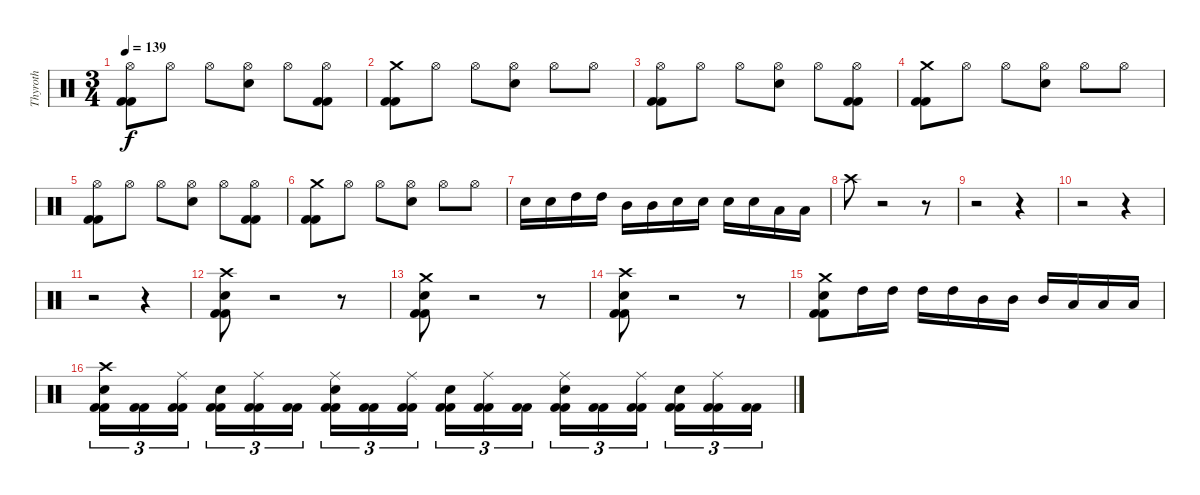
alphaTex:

\track ("Thyroth" "Thyroth") {instrument percussion}
\staff {score}
\articulation defaults
\ts (3 4)
\tempo 139
\clef neutral
\ks c
("Kick (hit) 2" "Kick (hit) 2" "Hi-Hat (open)").8{dy f} "Hi-Hat (open)".8 "Hi-Hat (open)".8 ("Snare (hit) 2" "Hi-Hat (open)").8 "Hi-Hat (open)".8 ("Kick (hit) 2" "Kick (hit) 2" "Hi-Hat (open)").8 |
("Kick (hit) 2" "Kick (hit) 2" "Crash medium (hit)").8 "Hi-Hat (open)".8 "Hi-Hat (open)".8 ("Snare (hit) 2" "Hi-Hat (open)").8 "Hi-Hat (open)".8 "Hi-Hat (open)".8 |
("Kick (hit) 2" "Kick (hit) 2" "Hi-Hat (open)").8 "Hi-Hat (open)".8 "Hi-Hat (open)".8 ("Snare (hit) 2" "Hi-Hat (open)").8 "Hi-Hat (open)".8 ("Kick (hit) 2" "Kick (hit) 2" "Hi-Hat (open)").8 |
("Kick (hit) 2" "Kick (hit) 2" "Crash medium (hit)").8 "Hi-Hat (open)".8 "Hi-Hat (open)".8 ("Snare (hit) 2" "Hi-Hat (open)").8 "Hi-Hat (open)".8 "Hi-Hat (open)".8 |
("Kick (hit) 2" "Kick (hit) 2" "Hi-Hat (open)").8 "Hi-Hat (open)".8 "Hi-Hat (open)".8 ("Snare (hit) 2" "Hi-Hat (open)").8 "Hi-Hat (open)".8 ("Kick (hit) 2" "Kick (hit) 2" "Hi-Hat (open)").8 |
("Kick (hit) 2" "Kick (hit) 2" "Crash medium (hit)").8 "Hi-Hat (open)".8 "Hi-Hat (open)".8 ("Snare (hit) 2" "Hi-Hat (open)").8 "Hi-Hat (open)".8 "Hi-Hat (open)".8 |
"Snare (hit) 2".16 "Snare (hit) 2".16 "High Tom (hit)".16 "High Tom (hit)".16 "Mid Tom (hit)".16 "Mid Tom (hit)".16 "Snare (hit) 2".16 "Snare (hit) 2".16 "Snare (hit) 2".16 "Snare (hit) 2".16 "Low Tom (hit)".16 "Low Tom (hit)".16 |
"Crash high (hit)".8 r.2 r.8 |
r.2 r.4 |
r.2 r.4 |
r.2 r.4 |
("Kick (hit) 2" "Kick (hit) 2" "Snare (hit) 2" "Crash high (hit)").8 r.2 r.8 |
("Kick (hit) 2" "Kick (hit) 2" "Snare (hit) 2" "Crash medium (hit)").8 r.2 r.8 |
("Kick (hit) 2" "Kick (hit) 2" "Snare (hit) 2" "Crash high (hit)").8 r.2 r.8 |
("Kick (hit) 2" "Kick (hit) 2" "Snare (hit) 2" "Crash medium (hit)").8 "High Tom (hit)".16 "High Tom (hit)".16 "High Tom (hit)".16 "High Tom (hit)".16 "Mid Tom (hit)".16 "Mid Tom (hit)".16 "Mid Tom (hit)".16 "Low Tom (hit)".16 "Low Tom (hit)".16 "Low Tom (hit)".16 |
("Kick (hit) 2" "Kick (hit) 2" "Snare (hit) 2" "Crash high (hit)").16{tu (3 2)} ("Kick (hit) 2" "Kick (hit) 2").16{tu (3 2)} ("Kick (hit) 2" "Kick (hit) 2" "Ride (middle)").16{tu (3 2)} ("Kick (hit) 2" "Kick (hit) 2" "Snare (hit) 2").16{tu (3 2)} ("Kick (hit) 2" "Kick (hit) 2" "Ride (middle)").16{tu (3 2)} ("Kick (hit) 2" "Kick (hit) 2").16{tu (3 2)} ("Kick (hit) 2" "Kick (hit) 2" "Snare (hit) 2" "Ride (middle)").16{tu (3 2)} ("Kick (hit) 2" "Kick (hit) 2").16{tu (3 2)} ("Kick (hit) 2" "Kick (hit) 2" "Ride (middle)").16{tu (3 2)} ("Kick (hit) 2" "Kick (hit) 2" "Snare (hit) 2").16{tu (3 2)} ("Kick (hit) 2" "Kick (hit) 2" "Ride (middle)").16{tu (3 2)} ("Kick (hit) 2" "Kick (hit) 2").16{tu (3 2)} ("Kick (hit) 2" "Kick (hit) 2" "Snare (hit) 2" "Ride (middle)").16{tu (3 2)} ("Kick (hit) 2" "Kick (hit) 2").16{tu (3 2)} ("Kick (hit) 2" "Kick (hit) 2" "Ride (middle)").16{tu (3 2)} ("Kick (hit) 2" "Kick (hit) 2" "Snare (hit) 2").16{tu (3 2)} ("Kick (hit) 2" "Kick (hit) 2" "Ride (middle)").16{tu (3 2)} ("Kick (hit) 2" "Kick (hit) 2").16{tu (3 2)}
